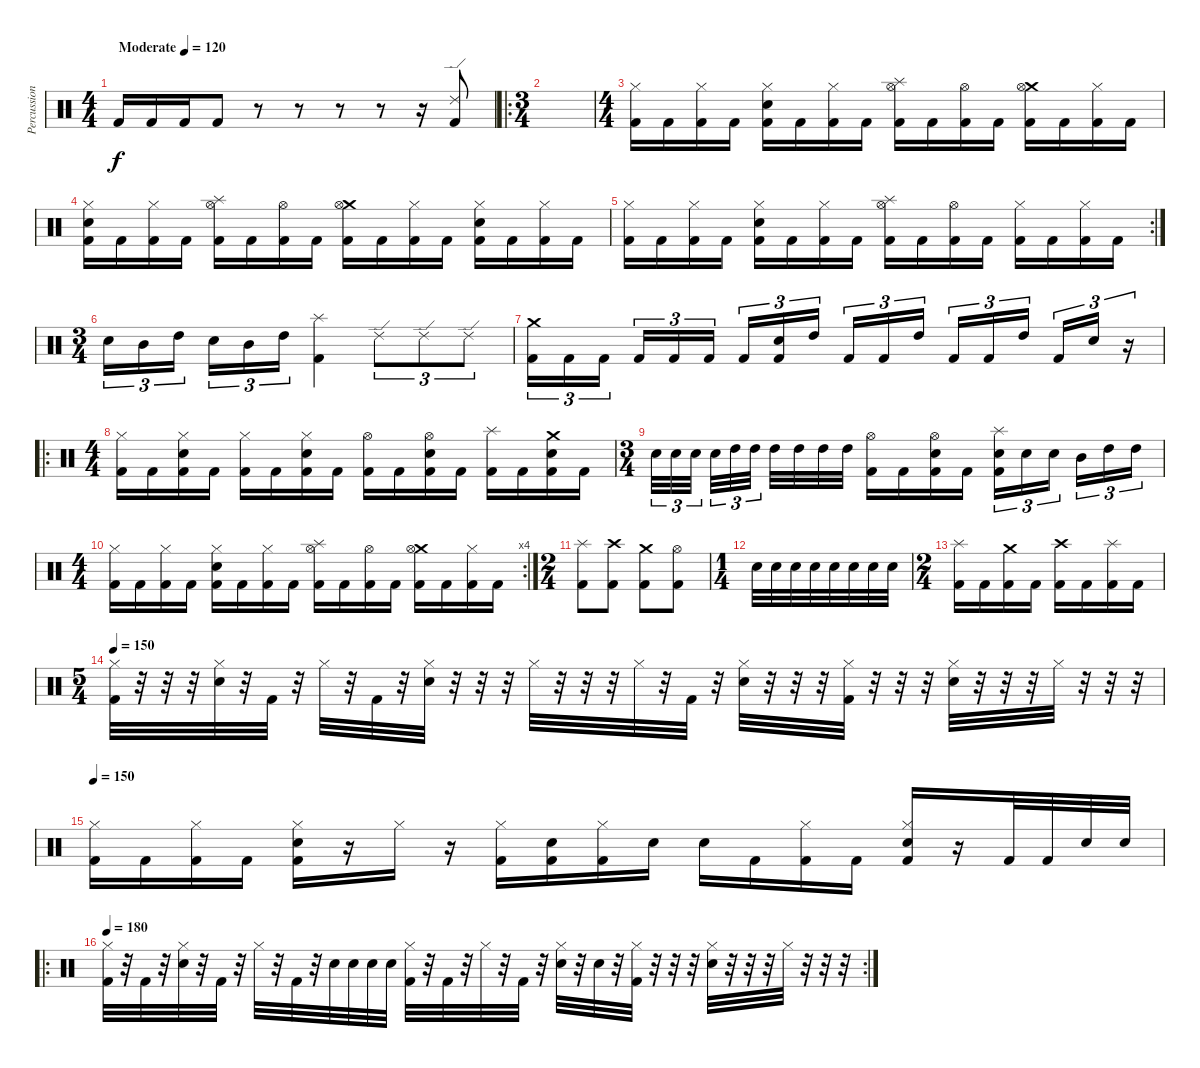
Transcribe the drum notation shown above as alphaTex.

\track ("Percussion" "Percussion") {instrument percussion}
\staff {score}
\articulation defaults
\ts (4 4)
\tempo (120 "Moderate")
\tempo 100
\tempo (120 "Moderate")
\clef neutral
\ks c "Kick (hit) 2".16{dy f} "Kick (hit) 2".16 "Kick (hit) 2".16 "Kick (hit) 2".8
r.8 r.8 r.8 r.8 r.16 ("Kick (hit) 2" "Ride (edge) 2").8 |
\ro
\ts (3 4)
|
\ts (4 4)
("Hi-Hat (closed)" "Kick (hit) 2").16 "Kick (hit) 2".16 ("Hi-Hat (closed)" "Kick (hit) 2").16 "Kick (hit) 2".16 ("Snare (hit) 2" "Hi-Hat (closed)" "Kick (hit) 2").16 "Kick (hit) 2".16 ("Hi-Hat (closed)" "Kick (hit) 2").16 "Kick (hit) 2".16 ("Splash (hit)" "Hi-Hat (open)" "Kick (hit) 2").16 "Kick (hit) 2".16 ("Hi-Hat (open)" "Kick (hit) 2").16 "Kick (hit) 2".16 ("Crash medium (hit)" "Hi-Hat (open)" "Kick (hit) 2").16 "Kick (hit) 2".16 ("Hi-Hat (closed)" "Kick (hit) 2").16 "Kick (hit) 2".16 |
("Snare (hit) 2" "Hi-Hat (closed)" "Kick (hit) 2").16 "Kick (hit) 2".16 ("Hi-Hat (closed)" "Kick (hit) 2").16 "Kick (hit) 2".16 ("Splash (hit)" "Hi-Hat (open)" "Kick (hit) 2").16 "Kick (hit) 2".16 ("Hi-Hat (open)" "Kick (hit) 2").16 "Kick (hit) 2".16 ("Crash medium (hit)" "Hi-Hat (open)" "Kick (hit) 2").16 "Kick (hit) 2".16 ("Hi-Hat (closed)" "Kick (hit) 2").16 "Kick (hit) 2".16 ("Snare (hit) 2" "Hi-Hat (closed)" "Kick (hit) 2").16 "Kick (hit) 2".16 ("Hi-Hat (closed)" "Kick (hit) 2").16 "Kick (hit) 2".16 |
\rc 2
("Hi-Hat (closed)" "Kick (hit) 2").16 "Kick (hit) 2".16 ("Hi-Hat (closed)" "Kick (hit) 2").16 "Kick (hit) 2".16 ("Snare (hit) 2" "Hi-Hat (closed)" "Kick (hit) 2").16 "Kick (hit) 2".16 ("Hi-Hat (closed)" "Kick (hit) 2").16 "Kick (hit) 2".16 ("Splash (hit)" "Hi-Hat (open)" "Kick (hit) 2").16 "Kick (hit) 2".16 ("Hi-Hat (open)" "Kick (hit) 2").16 "Kick (hit) 2".16 ("Hi-Hat (closed)" "Kick (hit) 2").16 "Kick (hit) 2".16 ("Hi-Hat (closed)" "Kick (hit) 2").16 "Kick (hit) 2".16 |
\ts (3 4)
"Snare (hit) 2".16{tu (3 2)} "Mid Tom (hit)".16{tu (3 2)} "High Tom (hit)".16{tu (3 2) beam splitsecondary} "Snare (hit) 2".16{tu (3 2)} "Mid Tom (hit)".16{tu (3 2)} "High Tom (hit)".16{tu (3 2)} ("Splash (hit)" "Kick (hit) 2").4 "Ride (edge) 2".8{tu (3 2)} "Ride (edge) 2".8{tu (3 2)} "Ride (edge) 2".8{tu (3 2)} |
("Kick (hit) 2" "Crash medium (hit)").16{tu (3 2)} "Kick (hit) 2".16{tu (3 2)} "Kick (hit) 2".16{tu (3 2) beam splitsecondary} "Kick (hit) 2".16{tu (3 2)} "Kick (hit) 2".16{tu (3 2)} "Kick (hit) 2".16{tu (3 2)} "Kick (hit) 2".16{tu (3 2)} ("Snare (hit) 2" "Kick (hit) 2").16{tu (3 2)} "High Tom (hit)".16{tu (3 2) beam splitsecondary} "Kick (hit) 2".16{tu (3 2)} "Kick (hit) 2".16{tu (3 2)} "High Tom (hit)".16{tu (3 2)} "Kick (hit) 2".16{tu (3 2)} "Kick (hit) 2".16{tu (3 2)} "High Tom (hit)".16{tu (3 2) beam splitsecondary} "Kick (hit) 2".16{tu (3 2)} "Snare (hit) 2".16{tu (3 2)} r.16{tu (3 2)} |
\ro
\ts (4 4)
("Hi-Hat (closed)" "Kick (hit) 2").16 "Kick (hit) 2".16 ("Hi-Hat (closed)" "Snare (hit) 2" "Kick (hit) 2").16 "Kick (hit) 2".16 ("Hi-Hat (closed)" "Kick (hit) 2").16 "Kick (hit) 2".16 ("Hi-Hat (closed)" "Snare (hit) 2" "Kick (hit) 2").16 "Kick (hit) 2".16 ("Hi-Hat (open)" "Kick (hit) 2").16 "Kick (hit) 2".16 ("Hi-Hat (open)" "Snare (hit) 2" "Kick (hit) 2").16 "Kick (hit) 2".16 ("Splash (hit)" "Kick (hit) 2").16 "Kick (hit) 2".16 ("Crash medium (hit)" "Snare (hit) 2" "Kick (hit) 2").16 "Kick (hit) 2".16 |
\ts (3 4)
"Snare (hit) 2".32{tu (3 2)} "Snare (hit) 2".32{tu (3 2)} "Snare (hit) 2".32{tu (3 2) beam splitsecondary} "Snare (hit) 2".32{tu (3 2)} "High Tom (hit)".32{tu (3 2)} "High Tom (hit)".32{tu (3 2) beam splitsecondary} "High Tom (hit)".32 "High Tom (hit)".32 "High Tom (hit)".32 "High Tom (hit)".32 ("Hi-Hat (open)" "Kick (hit) 2").16 "Kick (hit) 2".16 ("Hi-Hat (open)" "Snare (hit) 2" "Kick (hit) 2").16 "Kick (hit) 2".16 ("Snare (hit) 2" "Splash (hit)" "Kick (hit) 2").16{tu (3 2)} "Snare (hit) 2".16{tu (3 2)} "Snare (hit) 2".16{tu (3 2) beam splitsecondary} "Mid Tom (hit)".16{tu (3 2)} "High Tom (hit)".16{tu (3 2)} "High Tom (hit)".16{tu (3 2)} |
\rc 4
\ts (4 4)
("Hi-Hat (closed)" "Kick (hit) 2").16 "Kick (hit) 2".16 ("Hi-Hat (closed)" "Kick (hit) 2").16 "Kick (hit) 2".16 ("Snare (hit) 2" "Hi-Hat (closed)" "Kick (hit) 2").16 "Kick (hit) 2".16 ("Hi-Hat (closed)" "Kick (hit) 2").16 "Kick (hit) 2".16 ("Splash (hit)" "Hi-Hat (open)" "Kick (hit) 2").16 "Kick (hit) 2".16 ("Hi-Hat (open)" "Kick (hit) 2").16 "Kick (hit) 2".16 ("Crash medium (hit)" "Hi-Hat (open)" "Kick (hit) 2").16 "Kick (hit) 2".16 ("Hi-Hat (closed)" "Kick (hit) 2").16 "Kick (hit) 2".16 |
\ts (2 4)
("Splash (hit)" "Kick (hit) 2").8 ("Crash high (hit)" "Kick (hit) 2").8 ("Crash medium (hit)" "Kick (hit) 2").8 ("Hi-Hat (open)" "Kick (hit) 2").8 |
\ts (1 4)
"Snare (hit) 2".32 "Snare (hit) 2".32 "Snare (hit) 2".32 "Snare (hit) 2".32 "Snare (hit) 2".32 "Snare (hit) 2".32 "Snare (hit) 2".32 "Snare (hit) 2".32 |
\ts (2 4)
("Splash (hit)" "Kick (hit) 2").16 "Kick (hit) 2".16 ("Crash medium (hit)" "Kick (hit) 2").16 "Kick (hit) 2".16 ("Crash high (hit)" "Kick (hit) 2").16 "Kick (hit) 2".16 ("Splash (hit)" "Kick (hit) 2").16 "Kick (hit) 2".16 |
\ts (5 4)
\tempo 150
("Hi-Hat (closed)" "Kick (hit) 2").32 r.32 r.32 r.32 ("Hi-Hat (closed)" "Snare (hit) 2").32 r.32 "Kick (hit) 2".32 r.32 "Hi-Hat (closed)".32 r.32 "Kick (hit) 2".32 r.32 ("Hi-Hat (closed)" "Snare (hit) 2").32 r.32 r.32 r.32 "Hi-Hat (closed)".32 r.32 r.32 r.32 "Hi-Hat (closed)".32 r.32 "Kick (hit) 2".32 r.32 ("Hi-Hat (closed)" "Snare (hit) 2").32 r.32 r.32 r.32 ("Hi-Hat (closed)" "Kick (hit) 2").32 r.32 r.32 r.32 ("Hi-Hat (closed)" "Snare (hit) 2").32 r.32 r.32 r.32 "Hi-Hat (closed)".32 r.32 r.32 r.32 |
\tempo 150
("Hi-Hat (closed)" "Kick (hit) 2").16 "Kick (hit) 2".16 ("Hi-Hat (closed)" "Kick (hit) 2").16 "Kick (hit) 2".16 ("Hi-Hat (closed)" "Snare (hit) 2" "Kick (hit) 2").16 r.16 "Hi-Hat (closed)".16 r.16 ("Hi-Hat (closed)" "Kick (hit) 2").16 ("Snare (hit) 2" "Kick (hit) 2").16 ("Hi-Hat (closed)" "Kick (hit) 2").16 "Snare (hit) 2".16 "Snare (hit) 2".16 "Kick (hit) 2".16 ("Hi-Hat (closed)" "Kick (hit) 2").16 "Kick (hit) 2".16 ("Hi-Hat (closed)" "Snare (hit) 2" "Kick (hit) 2").16 r.16 "Kick (hit) 2".32 "Kick (hit) 2".32 "Snare (hit) 2".32 "Snare (hit) 2".32 |
\ro
\rc 2
\tempo 180
("Hi-Hat (closed)" "Kick (hit) 2").32 r.32 "Kick (hit) 2".32 r.32 ("Hi-Hat (closed)" "Snare (hit) 2").32 r.32 "Kick (hit) 2".32 r.32 "Hi-Hat (closed)".32 r.32 "Kick (hit) 2".32 r.32 "Snare (hit) 2".32 "Snare (hit) 2".32 "Snare (hit) 2".32 "Snare (hit) 2".32 ("Hi-Hat (closed)" "Kick (hit) 2").32 r.32 "Kick (hit) 2".32 r.32 "Hi-Hat (closed)".32 r.32 "Kick (hit) 2".32 r.32 ("Hi-Hat (closed)" "Snare (hit) 2").32 r.32 "Snare (hit) 2".32 r.32 ("Hi-Hat (closed)" "Kick (hit) 2").32 r.32 r.32 r.32 ("Hi-Hat (closed)" "Snare (hit) 2").32 r.32 r.32 r.32 "Hi-Hat (closed)".32 r.32 r.32 r.32
